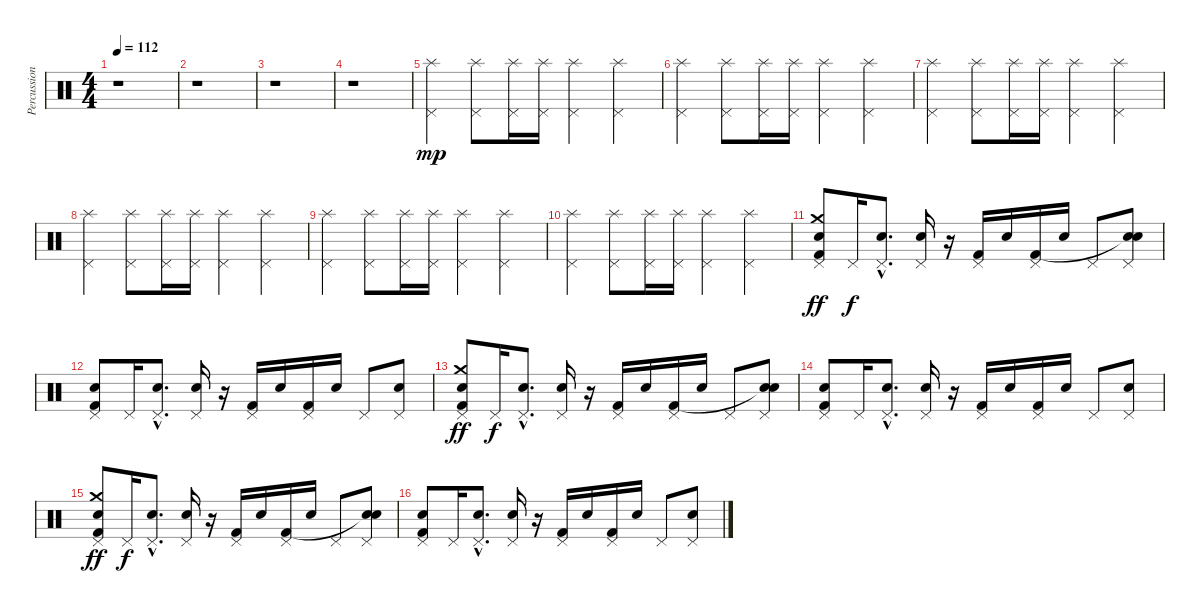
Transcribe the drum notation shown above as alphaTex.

\track ("Percussions" "Percussion") {instrument percussion}
\staff {score}
\articulation defaults
\ts (4 4)
\tempo 112
\clef neutral
\ks c
r.1{dy mp} |
r.1 |
r.1 |
r.1 |
("Splash (hit)" "Pedal Hi-Hat (hit)").4 ("Splash (hit)" "Pedal Hi-Hat (hit)").8 ("Splash (hit)" "Pedal Hi-Hat (hit)").16 ("Splash (hit)" "Pedal Hi-Hat (hit)").16 ("Splash (hit)" "Pedal Hi-Hat (hit)").4 ("Splash (hit)" "Pedal Hi-Hat (hit)").4 |
("Splash (hit)" "Pedal Hi-Hat (hit)").4 ("Splash (hit)" "Pedal Hi-Hat (hit)").8 ("Splash (hit)" "Pedal Hi-Hat (hit)").16 ("Splash (hit)" "Pedal Hi-Hat (hit)").16 ("Splash (hit)" "Pedal Hi-Hat (hit)").4 ("Splash (hit)" "Pedal Hi-Hat (hit)").4 |
("Splash (hit)" "Pedal Hi-Hat (hit)").4 ("Splash (hit)" "Pedal Hi-Hat (hit)").8 ("Splash (hit)" "Pedal Hi-Hat (hit)").16 ("Splash (hit)" "Pedal Hi-Hat (hit)").16 ("Splash (hit)" "Pedal Hi-Hat (hit)").4 ("Splash (hit)" "Pedal Hi-Hat (hit)").4 |
("Splash (hit)" "Pedal Hi-Hat (hit)").4 ("Splash (hit)" "Pedal Hi-Hat (hit)").8 ("Splash (hit)" "Pedal Hi-Hat (hit)").16 ("Splash (hit)" "Pedal Hi-Hat (hit)").16 ("Splash (hit)" "Pedal Hi-Hat (hit)").4 ("Splash (hit)" "Pedal Hi-Hat (hit)").4 |
("Splash (hit)" "Pedal Hi-Hat (hit)").4 ("Splash (hit)" "Pedal Hi-Hat (hit)").8 ("Splash (hit)" "Pedal Hi-Hat (hit)").16 ("Splash (hit)" "Pedal Hi-Hat (hit)").16 ("Splash (hit)" "Pedal Hi-Hat (hit)").4 ("Splash (hit)" "Pedal Hi-Hat (hit)").4 |
("Splash (hit)" "Pedal Hi-Hat (hit)").4 ("Splash (hit)" "Pedal Hi-Hat (hit)").8 ("Splash (hit)" "Pedal Hi-Hat (hit)").16 ("Splash (hit)" "Pedal Hi-Hat (hit)").16 ("Splash (hit)" "Pedal Hi-Hat (hit)").4 ("Splash (hit)" "Pedal Hi-Hat (hit)").4 |
("Pedal Hi-Hat (hit)" "Crash medium (hit)" "Kick (hit) 2" "Electric Snare (hit)").8{dy ff} "Pedal Hi-Hat (hit)".16{dy f} ("Pedal Hi-Hat (hit)"{hac} "Electric Snare (hit)"{hac}).8{d} ("Pedal Hi-Hat (hit)" "Electric Snare (hit)").16 r.16 ("Pedal Hi-Hat (hit)" "Kick (hit) 2").16 "Electric Snare (hit)".16 ("Pedal Hi-Hat (hit)" "Kick (hit) 2").16 "Electric Snare (hit)".16 "Pedal Hi-Hat (hit)".8 ("Pedal Hi-Hat (hit)" "Snare (hit)"{t} "Electric Snare (hit)").8 |
("Pedal Hi-Hat (hit)" "Kick (hit) 2" "Electric Snare (hit)").8 "Pedal Hi-Hat (hit)".16 ("Pedal Hi-Hat (hit)"{hac} "Electric Snare (hit)"{hac}).8{d} ("Pedal Hi-Hat (hit)" "Electric Snare (hit)").16 r.16 ("Pedal Hi-Hat (hit)" "Kick (hit) 2").16 "Electric Snare (hit)".16 ("Pedal Hi-Hat (hit)" "Kick (hit) 2").16 "Electric Snare (hit)".16 "Pedal Hi-Hat (hit)".8 ("Pedal Hi-Hat (hit)" "Electric Snare (hit)").8 |
("Pedal Hi-Hat (hit)" "Crash medium (hit)" "Kick (hit) 2" "Electric Snare (hit)").8{dy ff} "Pedal Hi-Hat (hit)".16{dy f} ("Pedal Hi-Hat (hit)"{hac} "Electric Snare (hit)"{hac}).8{d} ("Pedal Hi-Hat (hit)" "Electric Snare (hit)").16 r.16 ("Pedal Hi-Hat (hit)" "Kick (hit) 2").16 "Electric Snare (hit)".16 ("Pedal Hi-Hat (hit)" "Kick (hit) 2").16 "Electric Snare (hit)".16 "Pedal Hi-Hat (hit)".8 ("Pedal Hi-Hat (hit)" "Snare (hit)"{t} "Electric Snare (hit)").8 |
("Pedal Hi-Hat (hit)" "Kick (hit) 2" "Electric Snare (hit)").8 "Pedal Hi-Hat (hit)".16 ("Pedal Hi-Hat (hit)"{hac} "Electric Snare (hit)"{hac}).8{d} ("Pedal Hi-Hat (hit)" "Electric Snare (hit)").16 r.16 ("Pedal Hi-Hat (hit)" "Kick (hit) 2").16 "Electric Snare (hit)".16 ("Pedal Hi-Hat (hit)" "Kick (hit) 2").16 "Electric Snare (hit)".16 "Pedal Hi-Hat (hit)".8 ("Pedal Hi-Hat (hit)" "Electric Snare (hit)").8 |
("Pedal Hi-Hat (hit)" "Crash medium (hit)" "Kick (hit) 2" "Electric Snare (hit)").8{dy ff} "Pedal Hi-Hat (hit)".16{dy f} ("Pedal Hi-Hat (hit)"{hac} "Electric Snare (hit)"{hac}).8{d} ("Pedal Hi-Hat (hit)" "Electric Snare (hit)").16 r.16 ("Pedal Hi-Hat (hit)" "Kick (hit) 2").16 "Electric Snare (hit)".16 ("Pedal Hi-Hat (hit)" "Kick (hit) 2").16 "Electric Snare (hit)".16 "Pedal Hi-Hat (hit)".8 ("Pedal Hi-Hat (hit)" "Snare (hit)"{t} "Electric Snare (hit)").8 |
("Pedal Hi-Hat (hit)" "Kick (hit) 2" "Electric Snare (hit)").8 "Pedal Hi-Hat (hit)".16 ("Pedal Hi-Hat (hit)"{hac} "Electric Snare (hit)"{hac}).8{d} ("Pedal Hi-Hat (hit)" "Electric Snare (hit)").16 r.16 ("Pedal Hi-Hat (hit)" "Kick (hit) 2").16 "Electric Snare (hit)".16 ("Pedal Hi-Hat (hit)" "Kick (hit) 2").16 "Electric Snare (hit)".16 "Pedal Hi-Hat (hit)".8 ("Pedal Hi-Hat (hit)" "Electric Snare (hit)").8
